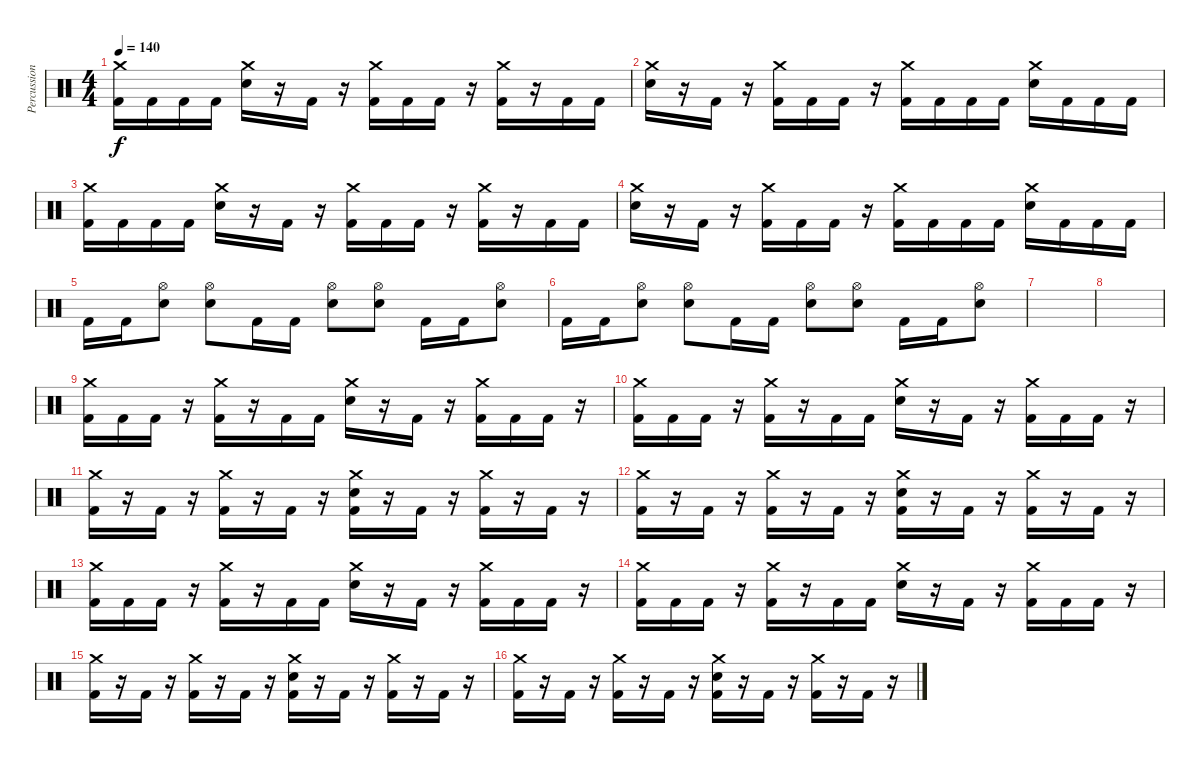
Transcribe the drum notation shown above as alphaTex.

\track ("Percussion" "Percussion") {instrument percussion}
\staff {score}
\articulation defaults
\ts (4 4)
\tempo 140
\clef neutral
\ks c
("Crash medium (hit)" "Kick (hit) 2").16{dy f} "Kick (hit) 2".16 "Kick (hit) 2".16 "Kick (hit) 2".16 ("Crash medium (hit)" "Electric Snare (hit)").16 r.16 "Kick (hit) 2".16 r.16 ("Crash medium (hit)" "Kick (hit) 2").16 "Kick (hit) 2".16 "Kick (hit) 2".16 r.16 ("Crash medium (hit)" "Kick (hit) 2").16 r.16 "Kick (hit) 2".16 "Kick (hit) 2".16 |
("Crash medium (hit)" "Electric Snare (hit)").16 r.16 "Kick (hit) 2".16 r.16 ("Crash medium (hit)" "Kick (hit) 2").16 "Kick (hit) 2".16 "Kick (hit) 2".16 r.16 ("Crash medium (hit)" "Kick (hit) 2").16 "Kick (hit) 2".16 "Kick (hit) 2".16 "Kick (hit) 2".16 ("Crash medium (hit)" "Electric Snare (hit)").16 "Kick (hit) 2".16 "Kick (hit) 2".16 "Kick (hit) 2".16 |
("Crash medium (hit)" "Kick (hit) 2").16 "Kick (hit) 2".16 "Kick (hit) 2".16 "Kick (hit) 2".16 ("Crash medium (hit)" "Electric Snare (hit)").16 r.16 "Kick (hit) 2".16 r.16 ("Crash medium (hit)" "Kick (hit) 2").16 "Kick (hit) 2".16 "Kick (hit) 2".16 r.16 ("Crash medium (hit)" "Kick (hit) 2").16 r.16 "Kick (hit) 2".16 "Kick (hit) 2".16 |
("Crash medium (hit)" "Electric Snare (hit)").16 r.16 "Kick (hit) 2".16 r.16 ("Crash medium (hit)" "Kick (hit) 2").16 "Kick (hit) 2".16 "Kick (hit) 2".16 r.16 ("Crash medium (hit)" "Kick (hit) 2").16 "Kick (hit) 2".16 "Kick (hit) 2".16 "Kick (hit) 2".16 ("Crash medium (hit)" "Electric Snare (hit)").16 "Kick (hit) 2".16 "Kick (hit) 2".16 "Kick (hit) 2".16 |
"Kick (hit) 2".16 "Kick (hit) 2".16 ("Hi-Hat (open)" "Electric Snare (hit)").8 ("Hi-Hat (open)" "Electric Snare (hit)").8 "Kick (hit) 2".16 "Kick (hit) 2".16 ("Hi-Hat (open)" "Electric Snare (hit)").8 ("Hi-Hat (open)" "Electric Snare (hit)").8 "Kick (hit) 2".16 "Kick (hit) 2".16 ("Hi-Hat (open)" "Electric Snare (hit)").8 |
"Kick (hit) 2".16 "Kick (hit) 2".16 ("Hi-Hat (open)" "Electric Snare (hit)").8 ("Hi-Hat (open)" "Electric Snare (hit)").8 "Kick (hit) 2".16 "Kick (hit) 2".16 ("Hi-Hat (open)" "Electric Snare (hit)").8 ("Hi-Hat (open)" "Electric Snare (hit)").8 "Kick (hit) 2".16 "Kick (hit) 2".16 ("Hi-Hat (open)" "Electric Snare (hit)").8 |
|
|
("Crash medium (hit)" "Kick (hit) 2").16 "Kick (hit) 2".16 "Kick (hit) 2".16 r.16 ("Crash medium (hit)" "Kick (hit) 2").16 r.16 "Kick (hit) 2".16 "Kick (hit) 2".16 ("Crash medium (hit)" "Electric Snare (hit)").16 r.16 "Kick (hit) 2".16 r.16 ("Crash medium (hit)" "Kick (hit) 2").16 "Kick (hit) 2".16 "Kick (hit) 2".16 r.16 |
("Crash medium (hit)" "Kick (hit) 2").16 "Kick (hit) 2".16 "Kick (hit) 2".16 r.16 ("Crash medium (hit)" "Kick (hit) 2").16 r.16 "Kick (hit) 2".16 "Kick (hit) 2".16 ("Crash medium (hit)" "Electric Snare (hit)").16 r.16 "Kick (hit) 2".16 r.16 ("Crash medium (hit)" "Kick (hit) 2").16 "Kick (hit) 2".16 "Kick (hit) 2".16 r.16 |
("Crash medium (hit)" "Kick (hit) 2").16 r.16 "Kick (hit) 2".16 r.16 ("Crash medium (hit)" "Kick (hit) 2").16 r.16 "Kick (hit) 2".16 r.16 ("Crash medium (hit)" "Kick (hit) 2" "Electric Snare (hit)").16 r.16 "Kick (hit) 2".16 r.16 ("Crash medium (hit)" "Kick (hit) 2").16 r.16 "Kick (hit) 2".16 r.16 |
("Crash medium (hit)" "Kick (hit) 2").16 r.16 "Kick (hit) 2".16 r.16 ("Crash medium (hit)" "Kick (hit) 2").16 r.16 "Kick (hit) 2".16 r.16 ("Crash medium (hit)" "Kick (hit) 2" "Electric Snare (hit)").16 r.16 "Kick (hit) 2".16 r.16 ("Crash medium (hit)" "Kick (hit) 2").16 r.16 "Kick (hit) 2".16 r.16 |
("Crash medium (hit)" "Kick (hit) 2").16 "Kick (hit) 2".16 "Kick (hit) 2".16 r.16 ("Crash medium (hit)" "Kick (hit) 2").16 r.16 "Kick (hit) 2".16 "Kick (hit) 2".16 ("Crash medium (hit)" "Electric Snare (hit)").16 r.16 "Kick (hit) 2".16 r.16 ("Crash medium (hit)" "Kick (hit) 2").16 "Kick (hit) 2".16 "Kick (hit) 2".16 r.16 |
("Crash medium (hit)" "Kick (hit) 2").16 "Kick (hit) 2".16 "Kick (hit) 2".16 r.16 ("Crash medium (hit)" "Kick (hit) 2").16 r.16 "Kick (hit) 2".16 "Kick (hit) 2".16 ("Crash medium (hit)" "Electric Snare (hit)").16 r.16 "Kick (hit) 2".16 r.16 ("Crash medium (hit)" "Kick (hit) 2").16 "Kick (hit) 2".16 "Kick (hit) 2".16 r.16 |
("Crash medium (hit)" "Kick (hit) 2").16 r.16 "Kick (hit) 2".16 r.16 ("Crash medium (hit)" "Kick (hit) 2").16 r.16 "Kick (hit) 2".16 r.16 ("Crash medium (hit)" "Kick (hit) 2" "Electric Snare (hit)").16 r.16 "Kick (hit) 2".16 r.16 ("Crash medium (hit)" "Kick (hit) 2").16 r.16 "Kick (hit) 2".16 r.16 |
("Crash medium (hit)" "Kick (hit) 2").16 r.16 "Kick (hit) 2".16 r.16 ("Crash medium (hit)" "Kick (hit) 2").16 r.16 "Kick (hit) 2".16 r.16 ("Crash medium (hit)" "Kick (hit) 2" "Electric Snare (hit)").16 r.16 "Kick (hit) 2".16 r.16 ("Crash medium (hit)" "Kick (hit) 2").16 r.16 "Kick (hit) 2".16 r.16
